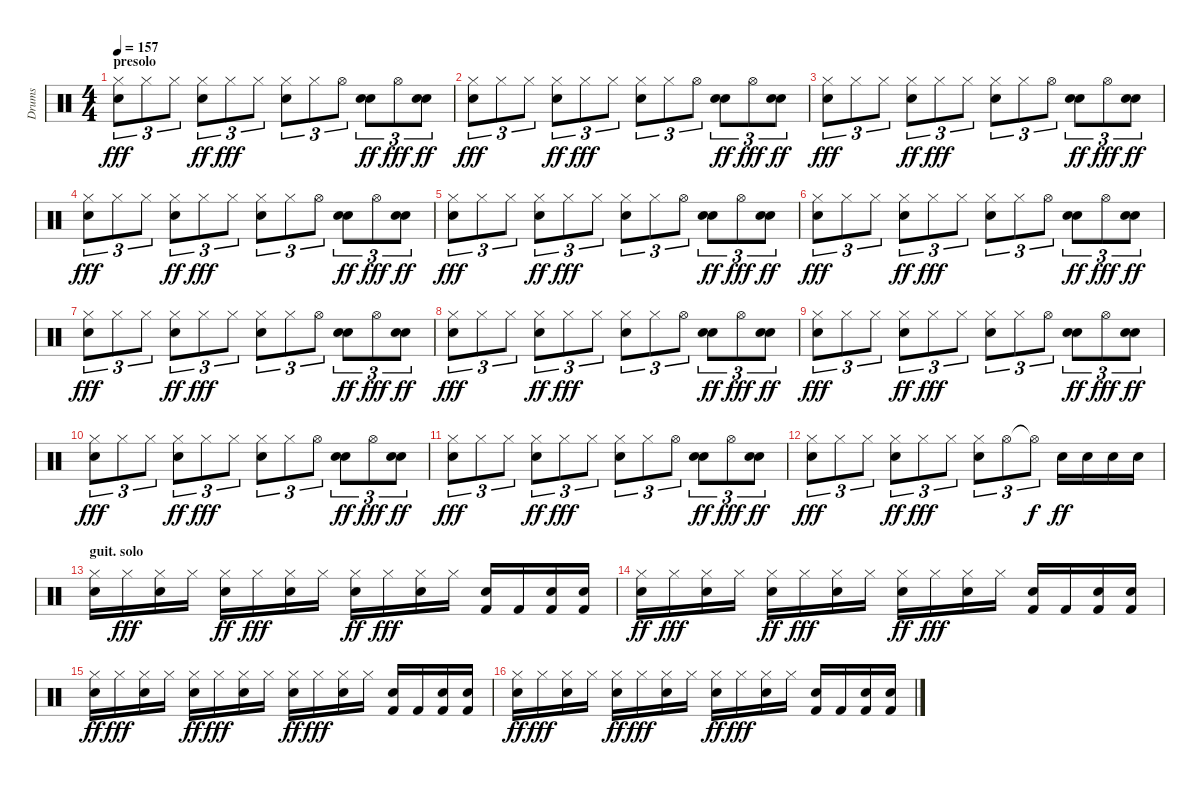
\track ("Drums" "Drums") {instrument percussion}
\staff {score}
\articulation defaults
\ts (4 4)
\section ("" "presolo")
\tempo 157
\clef neutral
\ks c
("Electric Snare (hit)" "Hi-Hat (closed)").8{tu (3 2) dy fff} "Hi-Hat (closed)".8{tu (3 2)} "Hi-Hat (closed)".8{tu (3 2)} ("Hi-Hat (closed)" "Snare (hit) 2").8{tu (3 2) dy ff} "Hi-Hat (closed)".8{tu (3 2) dy fff} "Hi-Hat (closed)".8{tu (3 2)} ("Electric Snare (hit)" "Hi-Hat (closed)").8{tu (3 2)} "Hi-Hat (closed)".8{tu (3 2)} "Hi-Hat (open)".8{tu (3 2)} ("Snare (hit) 2" "Electric Snare (hit)").8{tu (3 2) dy ff} "Hi-Hat (open)".8{tu (3 2) dy fff} ("Snare (hit) 2" "Electric Snare (hit)").8{tu (3 2) dy ff} |
("Electric Snare (hit)" "Hi-Hat (closed)").8{tu (3 2) dy fff} "Hi-Hat (closed)".8{tu (3 2)} "Hi-Hat (closed)".8{tu (3 2)} ("Hi-Hat (closed)" "Snare (hit) 2").8{tu (3 2) dy ff} "Hi-Hat (closed)".8{tu (3 2) dy fff} "Hi-Hat (closed)".8{tu (3 2)} ("Electric Snare (hit)" "Hi-Hat (closed)").8{tu (3 2)} "Hi-Hat (closed)".8{tu (3 2)} "Hi-Hat (open)".8{tu (3 2)} ("Snare (hit) 2" "Electric Snare (hit)").8{tu (3 2) dy ff} "Hi-Hat (open)".8{tu (3 2) dy fff} ("Snare (hit) 2" "Electric Snare (hit)").8{tu (3 2) dy ff} |
("Electric Snare (hit)" "Hi-Hat (closed)").8{tu (3 2) dy fff} "Hi-Hat (closed)".8{tu (3 2)} "Hi-Hat (closed)".8{tu (3 2)} ("Hi-Hat (closed)" "Snare (hit) 2").8{tu (3 2) dy ff} "Hi-Hat (closed)".8{tu (3 2) dy fff} "Hi-Hat (closed)".8{tu (3 2)} ("Electric Snare (hit)" "Hi-Hat (closed)").8{tu (3 2)} "Hi-Hat (closed)".8{tu (3 2)} "Hi-Hat (open)".8{tu (3 2)} ("Snare (hit) 2" "Electric Snare (hit)").8{tu (3 2) dy ff} "Hi-Hat (open)".8{tu (3 2) dy fff} ("Snare (hit) 2" "Electric Snare (hit)").8{tu (3 2) dy ff} |
("Electric Snare (hit)" "Hi-Hat (closed)").8{tu (3 2) dy fff} "Hi-Hat (closed)".8{tu (3 2)} "Hi-Hat (closed)".8{tu (3 2)} ("Hi-Hat (closed)" "Snare (hit) 2").8{tu (3 2) dy ff} "Hi-Hat (closed)".8{tu (3 2) dy fff} "Hi-Hat (closed)".8{tu (3 2)} ("Electric Snare (hit)" "Hi-Hat (closed)").8{tu (3 2)} "Hi-Hat (closed)".8{tu (3 2)} "Hi-Hat (open)".8{tu (3 2)} ("Snare (hit) 2" "Electric Snare (hit)").8{tu (3 2) dy ff} "Hi-Hat (open)".8{tu (3 2) dy fff} ("Snare (hit) 2" "Electric Snare (hit)").8{tu (3 2) dy ff} |
("Electric Snare (hit)" "Hi-Hat (closed)").8{tu (3 2) dy fff} "Hi-Hat (closed)".8{tu (3 2)} "Hi-Hat (closed)".8{tu (3 2)} ("Hi-Hat (closed)" "Snare (hit) 2").8{tu (3 2) dy ff} "Hi-Hat (closed)".8{tu (3 2) dy fff} "Hi-Hat (closed)".8{tu (3 2)} ("Electric Snare (hit)" "Hi-Hat (closed)").8{tu (3 2)} "Hi-Hat (closed)".8{tu (3 2)} "Hi-Hat (open)".8{tu (3 2)} ("Snare (hit) 2" "Electric Snare (hit)").8{tu (3 2) dy ff} "Hi-Hat (open)".8{tu (3 2) dy fff} ("Snare (hit) 2" "Electric Snare (hit)").8{tu (3 2) dy ff} |
("Electric Snare (hit)" "Hi-Hat (closed)").8{tu (3 2) dy fff} "Hi-Hat (closed)".8{tu (3 2)} "Hi-Hat (closed)".8{tu (3 2)} ("Hi-Hat (closed)" "Snare (hit) 2").8{tu (3 2) dy ff} "Hi-Hat (closed)".8{tu (3 2) dy fff} "Hi-Hat (closed)".8{tu (3 2)} ("Electric Snare (hit)" "Hi-Hat (closed)").8{tu (3 2)} "Hi-Hat (closed)".8{tu (3 2)} "Hi-Hat (open)".8{tu (3 2)} ("Snare (hit) 2" "Electric Snare (hit)").8{tu (3 2) dy ff} "Hi-Hat (open)".8{tu (3 2) dy fff} ("Snare (hit) 2" "Electric Snare (hit)").8{tu (3 2) dy ff} |
("Electric Snare (hit)" "Hi-Hat (closed)").8{tu (3 2) dy fff} "Hi-Hat (closed)".8{tu (3 2)} "Hi-Hat (closed)".8{tu (3 2)} ("Hi-Hat (closed)" "Snare (hit) 2").8{tu (3 2) dy ff} "Hi-Hat (closed)".8{tu (3 2) dy fff} "Hi-Hat (closed)".8{tu (3 2)} ("Electric Snare (hit)" "Hi-Hat (closed)").8{tu (3 2)} "Hi-Hat (closed)".8{tu (3 2)} "Hi-Hat (open)".8{tu (3 2)} ("Snare (hit) 2" "Electric Snare (hit)").8{tu (3 2) dy ff} "Hi-Hat (open)".8{tu (3 2) dy fff} ("Snare (hit) 2" "Electric Snare (hit)").8{tu (3 2) dy ff} |
("Electric Snare (hit)" "Hi-Hat (closed)").8{tu (3 2) dy fff} "Hi-Hat (closed)".8{tu (3 2)} "Hi-Hat (closed)".8{tu (3 2)} ("Hi-Hat (closed)" "Snare (hit) 2").8{tu (3 2) dy ff} "Hi-Hat (closed)".8{tu (3 2) dy fff} "Hi-Hat (closed)".8{tu (3 2)} ("Electric Snare (hit)" "Hi-Hat (closed)").8{tu (3 2)} "Hi-Hat (closed)".8{tu (3 2)} "Hi-Hat (open)".8{tu (3 2)} ("Snare (hit) 2" "Electric Snare (hit)").8{tu (3 2) dy ff} "Hi-Hat (open)".8{tu (3 2) dy fff} ("Snare (hit) 2" "Electric Snare (hit)").8{tu (3 2) dy ff} |
("Electric Snare (hit)" "Hi-Hat (closed)").8{tu (3 2) dy fff} "Hi-Hat (closed)".8{tu (3 2)} "Hi-Hat (closed)".8{tu (3 2)} ("Hi-Hat (closed)" "Snare (hit) 2").8{tu (3 2) dy ff} "Hi-Hat (closed)".8{tu (3 2) dy fff} "Hi-Hat (closed)".8{tu (3 2)} ("Electric Snare (hit)" "Hi-Hat (closed)").8{tu (3 2)} "Hi-Hat (closed)".8{tu (3 2)} "Hi-Hat (open)".8{tu (3 2)} ("Snare (hit) 2" "Electric Snare (hit)").8{tu (3 2) dy ff} "Hi-Hat (open)".8{tu (3 2) dy fff} ("Snare (hit) 2" "Electric Snare (hit)").8{tu (3 2) dy ff} |
("Electric Snare (hit)" "Hi-Hat (closed)").8{tu (3 2) dy fff} "Hi-Hat (closed)".8{tu (3 2)} "Hi-Hat (closed)".8{tu (3 2)} ("Hi-Hat (closed)" "Snare (hit) 2").8{tu (3 2) dy ff} "Hi-Hat (closed)".8{tu (3 2) dy fff} "Hi-Hat (closed)".8{tu (3 2)} ("Electric Snare (hit)" "Hi-Hat (closed)").8{tu (3 2)} "Hi-Hat (closed)".8{tu (3 2)} "Hi-Hat (open)".8{tu (3 2)} ("Snare (hit) 2" "Electric Snare (hit)").8{tu (3 2) dy ff} "Hi-Hat (open)".8{tu (3 2) dy fff} ("Snare (hit) 2" "Electric Snare (hit)").8{tu (3 2) dy ff} |
("Electric Snare (hit)" "Hi-Hat (closed)").8{tu (3 2) dy fff} "Hi-Hat (closed)".8{tu (3 2)} "Hi-Hat (closed)".8{tu (3 2)} ("Hi-Hat (closed)" "Snare (hit) 2").8{tu (3 2) dy ff} "Hi-Hat (closed)".8{tu (3 2) dy fff} "Hi-Hat (closed)".8{tu (3 2)} ("Electric Snare (hit)" "Hi-Hat (closed)").8{tu (3 2)} "Hi-Hat (closed)".8{tu (3 2)} "Hi-Hat (open)".8{tu (3 2)} ("Snare (hit) 2" "Electric Snare (hit)").8{tu (3 2) dy ff} "Hi-Hat (open)".8{tu (3 2) dy fff} ("Snare (hit) 2" "Electric Snare (hit)").8{tu (3 2) dy ff} |
("Electric Snare (hit)" "Hi-Hat (closed)").8{tu (3 2) dy fff} "Hi-Hat (closed)".8{tu (3 2)} "Hi-Hat (closed)".8{tu (3 2)} ("Hi-Hat (closed)" "Snare (hit) 2").8{tu (3 2) dy ff} "Hi-Hat (closed)".8{tu (3 2) dy fff} "Hi-Hat (closed)".8{tu (3 2)} ("Electric Snare (hit)" "Hi-Hat (closed)").8{tu (3 2)} "Hi-Hat (open)".8{tu (3 2)} "Hi-Hat (open)"{t}.8{tu (3 2) dy f} "Electric Snare (hit)".16{dy ff} "Electric Snare (hit)".16 "Electric Snare (hit)".16 "Electric Snare (hit)".16 |
\section ("" "guit. solo")
("Hi-Hat (closed)" "Electric Snare (hit)").16 "Hi-Hat (closed)".16{dy fff} ("Hi-Hat (closed)" "Snare (hit) 2").16 "Hi-Hat (closed)".16 ("Hi-Hat (closed)" "Electric Snare (hit)").16{dy ff} "Hi-Hat (closed)".16{dy fff} ("Hi-Hat (closed)" "Snare (hit) 2").16 "Hi-Hat (closed)".16 ("Hi-Hat (closed)" "Electric Snare (hit)").16{dy ff} "Hi-Hat (closed)".16{dy fff} ("Hi-Hat (closed)" "Snare (hit) 2").16 "Hi-Hat (closed)".16 ("Kick (hit) 2" "Electric Snare (hit)").16 "Kick (hit) 2".16 ("Kick (hit) 2" "Electric Snare (hit)").16 ("Kick (hit) 2" "Electric Snare (hit)").16 |
("Hi-Hat (closed)" "Electric Snare (hit)").16{dy ff} "Hi-Hat (closed)".16{dy fff} ("Hi-Hat (closed)" "Snare (hit) 2").16 "Hi-Hat (closed)".16 ("Hi-Hat (closed)" "Electric Snare (hit)").16{dy ff} "Hi-Hat (closed)".16{dy fff} ("Hi-Hat (closed)" "Snare (hit) 2").16 "Hi-Hat (closed)".16 ("Hi-Hat (closed)" "Electric Snare (hit)").16{dy ff} "Hi-Hat (closed)".16{dy fff} ("Hi-Hat (closed)" "Snare (hit) 2").16 "Hi-Hat (closed)".16 ("Kick (hit) 2" "Electric Snare (hit)").16 "Kick (hit) 2".16 ("Kick (hit) 2" "Electric Snare (hit)").16 ("Kick (hit) 2" "Electric Snare (hit)").16 |
("Hi-Hat (closed)" "Electric Snare (hit)").16{dy ff} "Hi-Hat (closed)".16{dy fff} ("Hi-Hat (closed)" "Snare (hit) 2").16 "Hi-Hat (closed)".16 ("Hi-Hat (closed)" "Electric Snare (hit)").16{dy ff} "Hi-Hat (closed)".16{dy fff} ("Hi-Hat (closed)" "Snare (hit) 2").16 "Hi-Hat (closed)".16 ("Hi-Hat (closed)" "Electric Snare (hit)").16{dy ff} "Hi-Hat (closed)".16{dy fff} ("Hi-Hat (closed)" "Snare (hit) 2").16 "Hi-Hat (closed)".16 ("Kick (hit) 2" "Electric Snare (hit)").16 "Kick (hit) 2".16 ("Kick (hit) 2" "Electric Snare (hit)").16 ("Kick (hit) 2" "Electric Snare (hit)").16 |
("Hi-Hat (closed)" "Electric Snare (hit)").16{dy ff} "Hi-Hat (closed)".16{dy fff} ("Hi-Hat (closed)" "Snare (hit) 2").16 "Hi-Hat (closed)".16 ("Hi-Hat (closed)" "Electric Snare (hit)").16{dy ff} "Hi-Hat (closed)".16{dy fff} ("Hi-Hat (closed)" "Snare (hit) 2").16 "Hi-Hat (closed)".16 ("Hi-Hat (closed)" "Electric Snare (hit)").16{dy ff} "Hi-Hat (closed)".16{dy fff} ("Hi-Hat (closed)" "Snare (hit) 2").16 "Hi-Hat (closed)".16 ("Kick (hit) 2" "Electric Snare (hit)").16 "Kick (hit) 2".16 ("Kick (hit) 2" "Electric Snare (hit)").16 ("Kick (hit) 2" "Electric Snare (hit)").16
